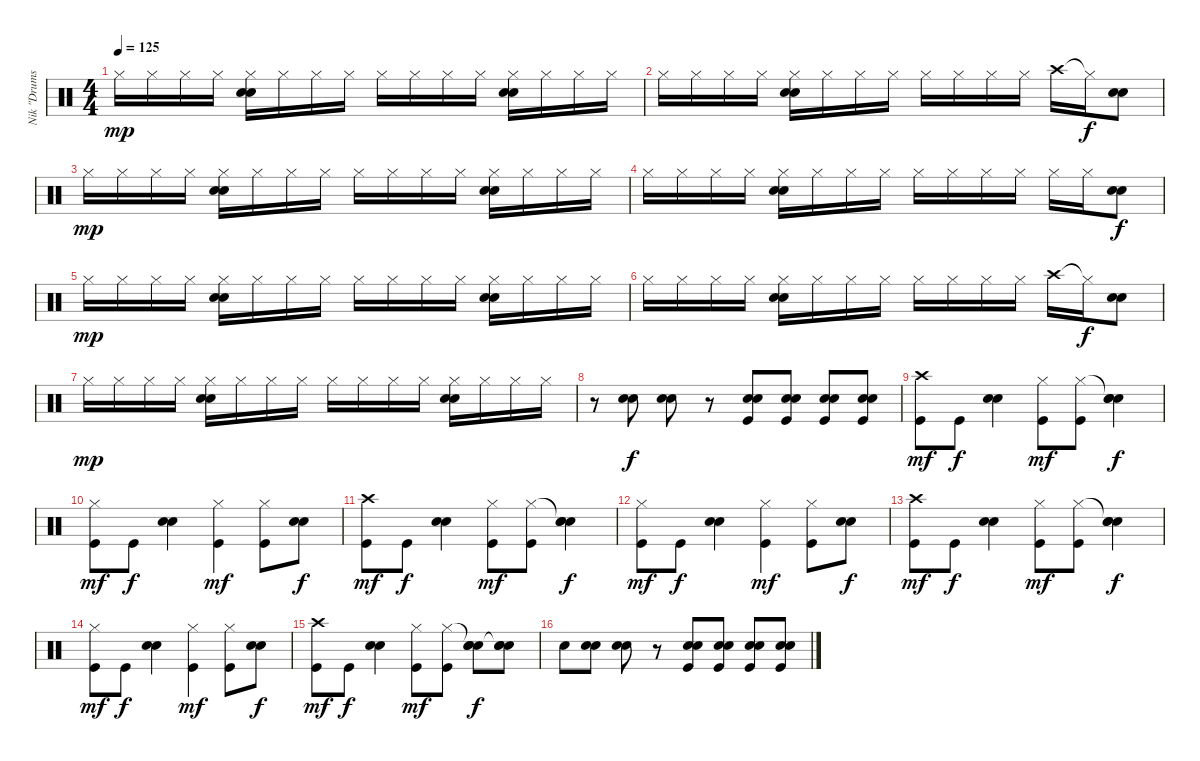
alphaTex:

\track ("Nik \"Drums\"" "Nik \"Drums") {instrument percussion}
\staff {score}
\articulation defaults
\ts (4 4)
\tempo 125
\clef neutral
\ks c "Hi-Hat (closed)".16{dy mp} "Hi-Hat (closed)".16 "Hi-Hat (closed)".16 "Hi-Hat (closed)".16
("Hi-Hat (closed)" "Electric Snare (hit)" "Electric Snare (hit)").16 "Hi-Hat (closed)".16 "Hi-Hat (closed)".16 "Hi-Hat (closed)".16 "Hi-Hat (closed)".16 "Hi-Hat (closed)".16 "Hi-Hat (closed)".16 "Hi-Hat (closed)".16 ("Hi-Hat (closed)" "Electric Snare (hit)" "Electric Snare (hit)").16 "Hi-Hat (closed)".16 "Hi-Hat (closed)".16 "Hi-Hat (closed)".16 |
"Hi-Hat (closed)".16 "Hi-Hat (closed)".16 "Hi-Hat (closed)".16 "Hi-Hat (closed)".16 ("Hi-Hat (closed)" "Electric Snare (hit)" "Electric Snare (hit)").16 "Hi-Hat (closed)".16 "Hi-Hat (closed)".16 "Hi-Hat (closed)".16 "Hi-Hat (closed)".16 "Hi-Hat (closed)".16 "Hi-Hat (closed)".16 "Hi-Hat (closed)".16 "Crash high (hit)".16 "Hi-Hat (closed)"{t}.16{dy f} ("Electric Snare (hit)" "Electric Snare (hit)").8 |
"Hi-Hat (closed)".16{dy mp} "Hi-Hat (closed)".16 "Hi-Hat (closed)".16 "Hi-Hat (closed)".16 ("Hi-Hat (closed)" "Electric Snare (hit)" "Electric Snare (hit)").16 "Hi-Hat (closed)".16 "Hi-Hat (closed)".16 "Hi-Hat (closed)".16 "Hi-Hat (closed)".16 "Hi-Hat (closed)".16 "Hi-Hat (closed)".16 "Hi-Hat (closed)".16 ("Hi-Hat (closed)" "Electric Snare (hit)" "Electric Snare (hit)").16 "Hi-Hat (closed)".16 "Hi-Hat (closed)".16 "Hi-Hat (closed)".16 |
"Hi-Hat (closed)".16 "Hi-Hat (closed)".16 "Hi-Hat (closed)".16 "Hi-Hat (closed)".16 ("Hi-Hat (closed)" "Electric Snare (hit)" "Electric Snare (hit)").16 "Hi-Hat (closed)".16 "Hi-Hat (closed)".16 "Hi-Hat (closed)".16 "Hi-Hat (closed)".16 "Hi-Hat (closed)".16 "Hi-Hat (closed)".16 "Hi-Hat (closed)".16 "Hi-Hat (closed)".16 "Hi-Hat (closed)".16 ("Electric Snare (hit)" "Electric Snare (hit)").8{dy f} |
"Hi-Hat (closed)".16{dy mp} "Hi-Hat (closed)".16 "Hi-Hat (closed)".16 "Hi-Hat (closed)".16 ("Hi-Hat (closed)" "Electric Snare (hit)" "Electric Snare (hit)").16 "Hi-Hat (closed)".16 "Hi-Hat (closed)".16 "Hi-Hat (closed)".16 "Hi-Hat (closed)".16 "Hi-Hat (closed)".16 "Hi-Hat (closed)".16 "Hi-Hat (closed)".16 ("Hi-Hat (closed)" "Electric Snare (hit)" "Electric Snare (hit)").16 "Hi-Hat (closed)".16 "Hi-Hat (closed)".16 "Hi-Hat (closed)".16 |
"Hi-Hat (closed)".16 "Hi-Hat (closed)".16 "Hi-Hat (closed)".16 "Hi-Hat (closed)".16 ("Hi-Hat (closed)" "Electric Snare (hit)" "Electric Snare (hit)").16 "Hi-Hat (closed)".16 "Hi-Hat (closed)".16 "Hi-Hat (closed)".16 "Hi-Hat (closed)".16 "Hi-Hat (closed)".16 "Hi-Hat (closed)".16 "Hi-Hat (closed)".16 "Crash high (hit)".16 "Hi-Hat (closed)"{t}.16{dy f} ("Electric Snare (hit)" "Electric Snare (hit)").8 |
"Hi-Hat (closed)".16{dy mp} "Hi-Hat (closed)".16 "Hi-Hat (closed)".16 "Hi-Hat (closed)".16 ("Hi-Hat (closed)" "Electric Snare (hit)" "Electric Snare (hit)").16 "Hi-Hat (closed)".16 "Hi-Hat (closed)".16 "Hi-Hat (closed)".16 "Hi-Hat (closed)".16 "Hi-Hat (closed)".16 "Hi-Hat (closed)".16 "Hi-Hat (closed)".16 ("Hi-Hat (closed)" "Electric Snare (hit)" "Electric Snare (hit)").16 "Hi-Hat (closed)".16 "Hi-Hat (closed)".16 "Hi-Hat (closed)".16 |
r.8{balance 8} ("Snare (hit) 2" "Electric Snare (hit)").8{dy f} ("Snare (hit) 2" "Electric Snare (hit)").8 r.8 ("Kick (hit)" "Electric Snare (hit)" "Electric Snare (hit)").8 ("Kick (hit)" "Electric Snare (hit)" "Electric Snare (hit)").8 ("Kick (hit)" "Electric Snare (hit)" "Snare (hit) 2").8 ("Kick (hit)" "Electric Snare (hit)" "Snare (hit) 2").8 |
("Crash high (hit)" "Kick (hit)").8{dy mf} "Kick (hit)".8{dy f} ("Electric Snare (hit)" "Electric Snare (hit)").4 ("Hi-Hat (closed)" "Kick (hit)").8{dy mf} ("Hi-Hat (closed)" "Kick (hit)").8 ("Snare (hit)"{t} "Electric Snare (hit)" "Electric Snare (hit)").4{dy f} |
("Hi-Hat (closed)" "Kick (hit)").8{dy mf} "Kick (hit)".8{dy f} ("Electric Snare (hit)" "Electric Snare (hit)").4 ("Hi-Hat (closed)" "Kick (hit)").4{dy mf} ("Hi-Hat (closed)" "Kick (hit)").8 ("Electric Snare (hit)" "Electric Snare (hit)").8{dy f} |
("Crash high (hit)" "Kick (hit)").8{dy mf} "Kick (hit)".8{dy f} ("Electric Snare (hit)" "Electric Snare (hit)").4 ("Hi-Hat (closed)" "Kick (hit)").8{dy mf} ("Hi-Hat (closed)" "Kick (hit)").8 ("Snare (hit)"{t} "Electric Snare (hit)" "Electric Snare (hit)").4{dy f} |
("Hi-Hat (closed)" "Kick (hit)").8{dy mf} "Kick (hit)".8{dy f} ("Electric Snare (hit)" "Electric Snare (hit)").4 ("Hi-Hat (closed)" "Kick (hit)").4{dy mf} ("Hi-Hat (closed)" "Kick (hit)").8 ("Electric Snare (hit)" "Electric Snare (hit)").8{dy f} |
("Crash high (hit)" "Kick (hit)").8{dy mf} "Kick (hit)".8{dy f} ("Electric Snare (hit)" "Electric Snare (hit)").4 ("Hi-Hat (closed)" "Kick (hit)").8{dy mf} ("Hi-Hat (closed)" "Kick (hit)").8 ("Snare (hit)"{t} "Electric Snare (hit)" "Electric Snare (hit)").4{dy f} |
("Hi-Hat (closed)" "Kick (hit)").8{dy mf} "Kick (hit)".8{dy f} ("Electric Snare (hit)" "Electric Snare (hit)").4 ("Hi-Hat (closed)" "Kick (hit)").4{dy mf} ("Hi-Hat (closed)" "Kick (hit)").8 ("Electric Snare (hit)" "Electric Snare (hit)").8{dy f} |
("Crash high (hit)" "Kick (hit)").8{dy mf} "Kick (hit)".8{dy f} ("Electric Snare (hit)" "Electric Snare (hit)").4 ("Hi-Hat (closed)" "Kick (hit)").8{dy mf} ("Hi-Hat (closed)" "Kick (hit)").8 ("Snare (hit)"{t} "Electric Snare (hit)" "Electric Snare (hit)").8{dy f} ("Snare (hit)"{t} "Electric Snare (hit)" "Electric Snare (hit)").8 |
"Electric Snare (hit)".8{balance 8} ("Snare (hit) 2" "Electric Snare (hit)").8 ("Snare (hit) 2" "Electric Snare (hit)").8 r.8 ("Kick (hit)" "Electric Snare (hit)" "Electric Snare (hit)").8 ("Kick (hit)" "Electric Snare (hit)" "Electric Snare (hit)").8 ("Kick (hit)" "Electric Snare (hit)" "Snare (hit) 2").8 ("Kick (hit)" "Electric Snare (hit)" "Snare (hit) 2").8
